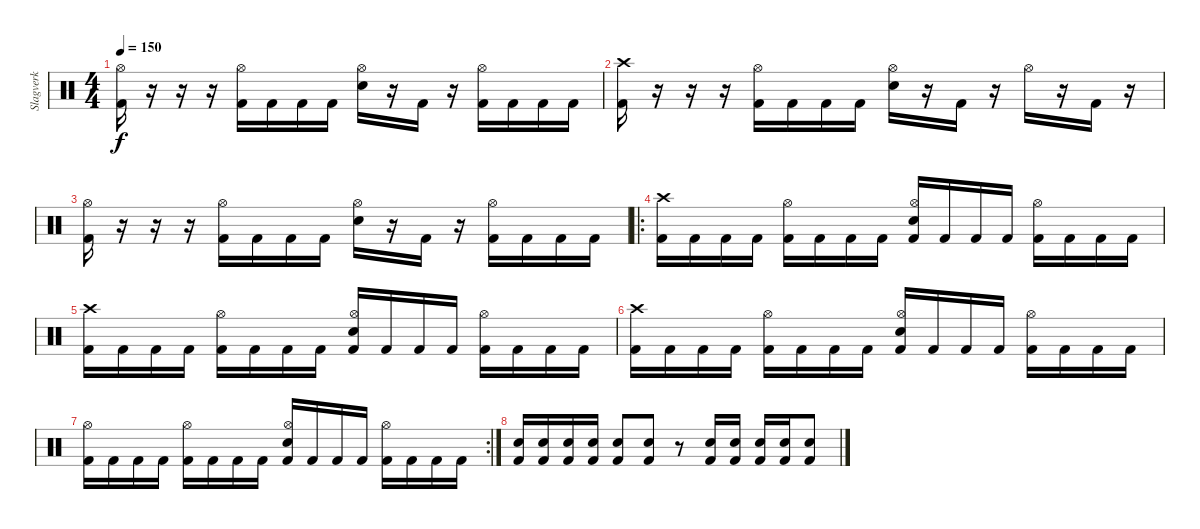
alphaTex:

\track ("Slagverk" "Slagverk") {instrument percussion}
\staff {score}
\articulation defaults
\ts (4 4)
\tempo 150
\clef neutral
\ks c
("Kick (hit) 2" "Hi-Hat (open)").16{dy f} r.16 r.16 r.16 ("Kick (hit) 2" "Hi-Hat (open)").16 "Kick (hit) 2".16 "Kick (hit) 2".16 "Kick (hit) 2".16 ("Snare (hit) 2" "Hi-Hat (open)").16 r.16 "Kick (hit) 2".16 r.16 ("Kick (hit) 2" "Hi-Hat (open)").16 "Kick (hit) 2".16 "Kick (hit) 2".16 "Kick (hit) 2".16 |
("Kick (hit) 2" "Crash high (hit)").16 r.16 r.16 r.16 ("Kick (hit) 2" "Hi-Hat (open)").16 "Kick (hit) 2".16 "Kick (hit) 2".16 "Kick (hit) 2".16 ("Snare (hit) 2" "Hi-Hat (open)").16 r.16 "Kick (hit) 2".16 r.16 "Hi-Hat (open)".16 r.16 "Kick (hit) 2".16 r.16 |
("Kick (hit) 2" "Hi-Hat (open)").16 r.16 r.16 r.16 ("Kick (hit) 2" "Hi-Hat (open)").16 "Kick (hit) 2".16 "Kick (hit) 2".16 "Kick (hit) 2".16 ("Snare (hit) 2" "Hi-Hat (open)").16 r.16 "Kick (hit) 2".16 r.16 ("Kick (hit) 2" "Hi-Hat (open)").16 "Kick (hit) 2".16 "Kick (hit) 2".16 "Kick (hit) 2".16 |
\ro
("Kick (hit) 2" "Crash high (hit)").16 "Kick (hit) 2".16 "Kick (hit) 2".16 "Kick (hit) 2".16 ("Kick (hit) 2" "Hi-Hat (open)").16 "Kick (hit) 2".16 "Kick (hit) 2".16 "Kick (hit) 2".16 ("Kick (hit) 2" "Snare (hit) 2" "Hi-Hat (open)").16 "Kick (hit) 2".16 "Kick (hit) 2".16 "Kick (hit) 2".16 ("Kick (hit) 2" "Hi-Hat (open)").16 "Kick (hit) 2".16 "Kick (hit) 2".16 "Kick (hit) 2".16 |
("Kick (hit) 2" "Crash high (hit)").16 "Kick (hit) 2".16 "Kick (hit) 2".16 "Kick (hit) 2".16 ("Kick (hit) 2" "Hi-Hat (open)").16 "Kick (hit) 2".16 "Kick (hit) 2".16 "Kick (hit) 2".16 ("Kick (hit) 2" "Snare (hit) 2" "Hi-Hat (open)").16 "Kick (hit) 2".16 "Kick (hit) 2".16 "Kick (hit) 2".16 ("Kick (hit) 2" "Hi-Hat (open)").16 "Kick (hit) 2".16 "Kick (hit) 2".16 "Kick (hit) 2".16 |
("Kick (hit) 2" "Crash high (hit)").16 "Kick (hit) 2".16 "Kick (hit) 2".16 "Kick (hit) 2".16 ("Kick (hit) 2" "Hi-Hat (open)").16 "Kick (hit) 2".16 "Kick (hit) 2".16 "Kick (hit) 2".16 ("Kick (hit) 2" "Snare (hit) 2" "Hi-Hat (open)").16 "Kick (hit) 2".16 "Kick (hit) 2".16 "Kick (hit) 2".16 ("Kick (hit) 2" "Hi-Hat (open)").16 "Kick (hit) 2".16 "Kick (hit) 2".16 "Kick (hit) 2".16 |
\rc 2
("Kick (hit) 2" "Hi-Hat (open)").16 "Kick (hit) 2".16 "Kick (hit) 2".16 "Kick (hit) 2".16 ("Kick (hit) 2" "Hi-Hat (open)").16 "Kick (hit) 2".16 "Kick (hit) 2".16 "Kick (hit) 2".16 ("Kick (hit) 2" "Snare (hit) 2" "Hi-Hat (open)").16 "Kick (hit) 2".16 "Kick (hit) 2".16 "Kick (hit) 2".16 ("Kick (hit) 2" "Hi-Hat (open)").16 "Kick (hit) 2".16 "Kick (hit) 2".16 "Kick (hit) 2".16 |
("Snare (hit) 2" "Kick (hit) 2").16 ("Snare (hit) 2" "Kick (hit) 2").16 ("Snare (hit) 2" "Kick (hit) 2").16 ("Snare (hit) 2" "Kick (hit) 2").16 ("Snare (hit) 2" "Kick (hit) 2").8 ("Snare (hit) 2" "Kick (hit) 2").8 r.8 ("Snare (hit) 2" "Kick (hit) 2").16 ("Snare (hit) 2" "Kick (hit) 2").16 ("Snare (hit) 2" "Kick (hit) 2").16 ("Snare (hit) 2" "Kick (hit) 2").16 ("Snare (hit) 2" "Kick (hit) 2").8
